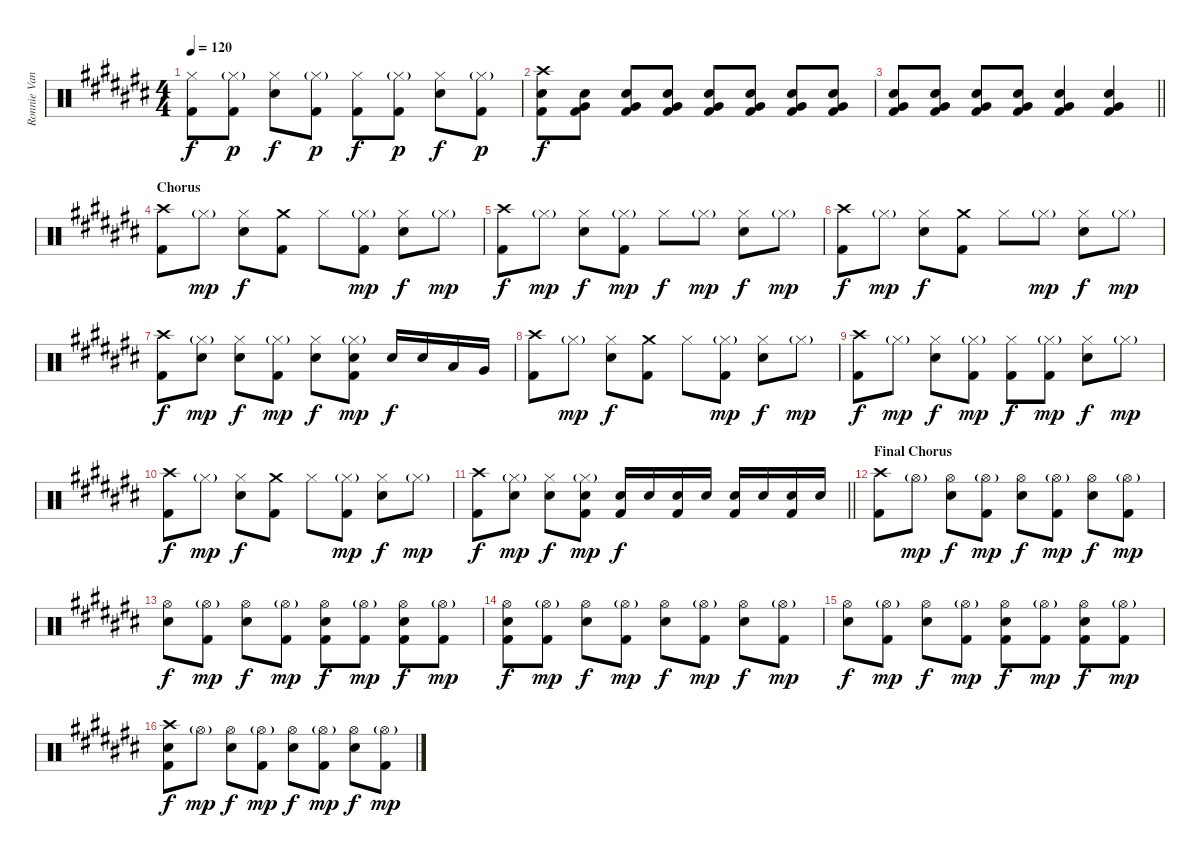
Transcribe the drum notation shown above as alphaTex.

\track ("Ronnie Vannucci Jr. drums" "Ronnie Van") {instrument percussion}
\staff {score}
\articulation defaults
\ts (4 4)
\tempo 120
\clef neutral
\ks c#
("Hi-Hat (closed)" "Kick (hit) 2").8{dy f} ("Hi-Hat (closed)"{g} "Kick (hit) 2").8{dy p} ("Hi-Hat (closed)" "Electric Snare (hit)").8{dy f} ("Hi-Hat (closed)"{g} "Kick (hit) 2").8{dy p} ("Hi-Hat (closed)" "Kick (hit) 2").8{dy f} ("Hi-Hat (closed)"{g} "Kick (hit) 2").8{dy p} ("Hi-Hat (closed)" "Electric Snare (hit)").8{dy f} ("Hi-Hat (closed)"{g} "Kick (hit) 2").8{dy p} |
("Crash high (hit)" "Electric Snare (hit)" "Kick (hit) 2").8{dy f} ("Very Low Tom (hit)" "Electric Snare (hit)" "Kick (hit) 2").8{volume 8} ("Very Low Tom (hit)" "Electric Snare (hit)" "Kick (hit) 2").8{volume 13} ("Very Low Tom (hit)" "Electric Snare (hit)" "Kick (hit) 2").8 ("Very Low Tom (hit)" "Electric Snare (hit)" "Kick (hit) 2").8 ("Very Low Tom (hit)" "Electric Snare (hit)" "Kick (hit) 2").8 ("Very Low Tom (hit)" "Electric Snare (hit)" "Kick (hit) 2").8 ("Very Low Tom (hit)" "Electric Snare (hit)" "Kick (hit) 2").8 |
\barLineRight lightlight
("Very Low Tom (hit)" "Electric Snare (hit)" "Kick (hit) 2").8 ("Very Low Tom (hit)" "Electric Snare (hit)" "Kick (hit) 2").8 ("Very Low Tom (hit)" "Electric Snare (hit)" "Kick (hit) 2").8 ("Very Low Tom (hit)" "Electric Snare (hit)" "Kick (hit) 2").8 ("Very Low Tom (hit)" "Electric Snare (hit)" "Kick (hit) 2").4 ("Very Low Tom (hit)" "Electric Snare (hit)" "Kick (hit) 2").4 |
\section ("" "Chorus")
("Crash high (hit)" "Kick (hit) 2").8 "Hi-Hat (closed)"{g}.8{dy mp} ("Hi-Hat (closed)" "Electric Snare (hit)").8{dy f} ("Crash medium (hit)" "Kick (hit) 2").8 "Hi-Hat (closed)".8 ("Hi-Hat (closed)"{g} "Kick (hit) 2").8{dy mp} ("Hi-Hat (closed)" "Electric Snare (hit)").8{dy f} "Hi-Hat (closed)"{g}.8{dy mp} |
("Crash high (hit)" "Kick (hit) 2").8{dy f} "Hi-Hat (closed)"{g}.8{dy mp} ("Hi-Hat (closed)" "Electric Snare (hit)").8{dy f} ("Hi-Hat (closed)"{g} "Kick (hit) 2").8{dy mp} "Hi-Hat (closed)".8{dy f} "Hi-Hat (closed)"{g}.8{dy mp} ("Hi-Hat (closed)" "Electric Snare (hit)").8{dy f} "Hi-Hat (closed)"{g}.8{dy mp} |
("Crash high (hit)" "Kick (hit) 2").8{dy f} "Hi-Hat (closed)"{g}.8{dy mp} ("Hi-Hat (closed)" "Electric Snare (hit)").8{dy f} ("Crash medium (hit)" "Kick (hit) 2").8 "Hi-Hat (closed)".8 "Hi-Hat (closed)"{g}.8{dy mp} ("Hi-Hat (closed)" "Electric Snare (hit)").8{dy f} "Hi-Hat (closed)"{g}.8{dy mp} |
("Crash high (hit)" "Kick (hit) 2").8{dy f} ("Hi-Hat (closed)"{g} "Electric Snare (hit)").8{dy mp} ("Hi-Hat (closed)" "Electric Snare (hit)").8{dy f} ("Hi-Hat (closed)"{g} "Kick (hit) 2").8{dy mp} ("Hi-Hat (closed)" "Electric Snare (hit)").8{dy f} ("Hi-Hat (closed)"{g} "Electric Snare (hit)" "Kick (hit) 2").8{dy mp} "Electric Snare (hit)".16{dy f} "Electric Snare (hit)".16 "Low Tom (hit)".16 "Very Low Tom (hit)".16 |
("Crash high (hit)" "Kick (hit) 2").8 "Hi-Hat (closed)"{g}.8{dy mp} ("Hi-Hat (closed)" "Electric Snare (hit)").8{dy f} ("Crash medium (hit)" "Kick (hit) 2").8 "Hi-Hat (closed)".8 ("Hi-Hat (closed)"{g} "Kick (hit) 2").8{dy mp} ("Hi-Hat (closed)" "Electric Snare (hit)").8{dy f} "Hi-Hat (closed)"{g}.8{dy mp} |
("Crash high (hit)" "Kick (hit) 2").8{dy f} "Hi-Hat (closed)"{g}.8{dy mp} ("Hi-Hat (closed)" "Electric Snare (hit)").8{dy f} ("Hi-Hat (closed)"{g} "Kick (hit) 2").8{dy mp} ("Hi-Hat (closed)" "Kick (hit) 2").8{dy f} ("Hi-Hat (closed)"{g} "Kick (hit) 2").8{dy mp} ("Hi-Hat (closed)" "Electric Snare (hit)").8{dy f} "Hi-Hat (closed)"{g}.8{dy mp} |
("Crash high (hit)" "Kick (hit) 2").8{dy f} "Hi-Hat (closed)"{g}.8{dy mp} ("Hi-Hat (closed)" "Electric Snare (hit)").8{dy f} ("Crash medium (hit)" "Kick (hit) 2").8 "Hi-Hat (closed)".8 ("Hi-Hat (closed)"{g} "Kick (hit) 2").8{dy mp} ("Hi-Hat (closed)" "Electric Snare (hit)").8{dy f} "Hi-Hat (closed)"{g}.8{dy mp} |
\barLineRight lightlight
("Crash high (hit)" "Kick (hit) 2").8{dy f} ("Hi-Hat (closed)"{g} "Electric Snare (hit)").8{dy mp} ("Hi-Hat (closed)" "Electric Snare (hit)").8{dy f} ("Hi-Hat (closed)"{g} "Electric Snare (hit)" "Kick (hit) 2").8{dy mp} ("Electric Snare (hit)" "Kick (hit) 2").16{dy f} "Electric Snare (hit)".16 ("Electric Snare (hit)" "Kick (hit) 2").16 "Electric Snare (hit)".16 ("Electric Snare (hit)" "Kick (hit) 2").16 "Electric Snare (hit)".16 ("Electric Snare (hit)" "Kick (hit) 2").16 "Electric Snare (hit)".16 |
\section ("" "Final Chorus")
("Crash high (hit)" "Kick (hit) 2").8 "Hi-Hat (open)"{g}.8{dy mp} ("Hi-Hat (open)" "Electric Snare (hit)").8{dy f} ("Hi-Hat (open)"{g} "Kick (hit) 2").8{dy mp} ("Hi-Hat (open)" "Electric Snare (hit)").8{dy f} ("Hi-Hat (open)"{g} "Kick (hit) 2").8{dy mp} ("Hi-Hat (open)" "Electric Snare (hit)").8{dy f} ("Hi-Hat (open)"{g} "Kick (hit) 2").8{dy mp} |
("Hi-Hat (open)" "Electric Snare (hit)").8{dy f} ("Hi-Hat (open)"{g} "Kick (hit) 2").8{dy mp} ("Hi-Hat (open)" "Electric Snare (hit)").8{dy f} ("Hi-Hat (open)"{g} "Kick (hit) 2").8{dy mp} ("Hi-Hat (open)" "Electric Snare (hit)" "Kick (hit) 2").8{dy f} ("Hi-Hat (open)"{g} "Kick (hit) 2").8{dy mp} ("Hi-Hat (open)" "Electric Snare (hit)" "Kick (hit) 2").8{dy f} ("Hi-Hat (open)"{g} "Kick (hit) 2").8{dy mp} |
("Hi-Hat (open)" "Electric Snare (hit)" "Kick (hit) 2").8{dy f} ("Hi-Hat (open)"{g} "Kick (hit) 2").8{dy mp} ("Hi-Hat (open)" "Electric Snare (hit)").8{dy f} ("Hi-Hat (open)"{g} "Kick (hit) 2").8{dy mp} ("Hi-Hat (open)" "Electric Snare (hit)").8{dy f} ("Hi-Hat (open)"{g} "Kick (hit) 2").8{dy mp} ("Hi-Hat (open)" "Electric Snare (hit)").8{dy f} ("Hi-Hat (open)"{g} "Kick (hit) 2").8{dy mp} |
("Hi-Hat (open)" "Electric Snare (hit)").8{dy f} ("Hi-Hat (open)"{g} "Kick (hit) 2").8{dy mp} ("Hi-Hat (open)" "Electric Snare (hit)").8{dy f} ("Hi-Hat (open)"{g} "Kick (hit) 2").8{dy mp} ("Hi-Hat (open)" "Electric Snare (hit)" "Kick (hit) 2").8{dy f} ("Hi-Hat (open)"{g} "Kick (hit) 2").8{dy mp} ("Hi-Hat (open)" "Electric Snare (hit)" "Kick (hit) 2").8{dy f} ("Hi-Hat (open)"{g} "Kick (hit) 2").8{dy mp} |
("Crash high (hit)" "Electric Snare (hit)" "Kick (hit) 2").8{dy f} "Hi-Hat (open)"{g}.8{dy mp} ("Hi-Hat (open)" "Electric Snare (hit)").8{dy f} ("Hi-Hat (open)"{g} "Kick (hit) 2").8{dy mp} ("Hi-Hat (open)" "Electric Snare (hit)").8{dy f} ("Hi-Hat (open)"{g} "Kick (hit) 2").8{dy mp} ("Hi-Hat (open)" "Electric Snare (hit)").8{dy f} ("Hi-Hat (open)"{g} "Kick (hit) 2").8{dy mp}
